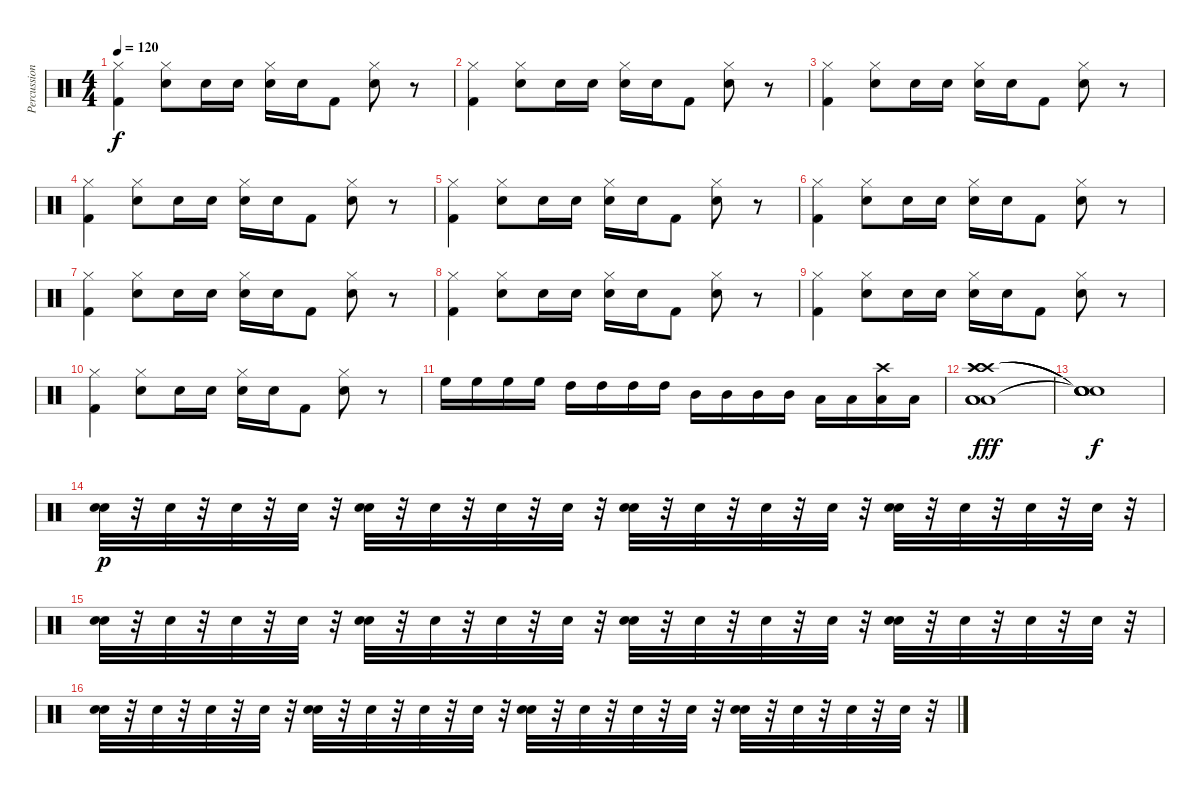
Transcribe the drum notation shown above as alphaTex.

\track ("Percussion - CJ" "Percussion") {instrument percussion}
\staff {score}
\articulation defaults
\ts (4 4)
\tempo 120
\clef neutral
\ks c
("Kick (hit) 2" "Hi-Hat (closed)").4{dy f} ("Snare (hit) 2" "Hi-Hat (closed)").8 "Snare (hit) 2".16 "Snare (hit) 2".16 ("Snare (hit) 2" "Hi-Hat (closed)").16 "Snare (hit) 2".16 "Kick (hit) 2".8 ("Snare (hit) 2" "Hi-Hat (closed)").8 r.8 |
("Kick (hit) 2" "Hi-Hat (closed)").4 ("Snare (hit) 2" "Hi-Hat (closed)").8 "Snare (hit) 2".16 "Snare (hit) 2".16 ("Snare (hit) 2" "Hi-Hat (closed)").16 "Snare (hit) 2".16 "Kick (hit) 2".8 ("Snare (hit) 2" "Hi-Hat (closed)").8 r.8 |
("Kick (hit) 2" "Hi-Hat (closed)").4 ("Snare (hit) 2" "Hi-Hat (closed)").8 "Snare (hit) 2".16 "Snare (hit) 2".16 ("Snare (hit) 2" "Hi-Hat (closed)").16 "Snare (hit) 2".16 "Kick (hit) 2".8 ("Snare (hit) 2" "Hi-Hat (closed)").8 r.8 |
("Kick (hit) 2" "Hi-Hat (closed)").4 ("Snare (hit) 2" "Hi-Hat (closed)").8 "Snare (hit) 2".16 "Snare (hit) 2".16 ("Snare (hit) 2" "Hi-Hat (closed)").16 "Snare (hit) 2".16 "Kick (hit) 2".8 ("Snare (hit) 2" "Hi-Hat (closed)").8 r.8 |
("Kick (hit) 2" "Hi-Hat (closed)").4 ("Snare (hit) 2" "Hi-Hat (closed)").8 "Snare (hit) 2".16 "Snare (hit) 2".16 ("Snare (hit) 2" "Hi-Hat (closed)").16 "Snare (hit) 2".16 "Kick (hit) 2".8 ("Snare (hit) 2" "Hi-Hat (closed)").8 r.8 |
("Kick (hit) 2" "Hi-Hat (closed)").4 ("Snare (hit) 2" "Hi-Hat (closed)").8 "Snare (hit) 2".16 "Snare (hit) 2".16 ("Snare (hit) 2" "Hi-Hat (closed)").16 "Snare (hit) 2".16 "Kick (hit) 2".8 ("Snare (hit) 2" "Hi-Hat (closed)").8 r.8 |
("Kick (hit) 2" "Hi-Hat (closed)").4 ("Snare (hit) 2" "Hi-Hat (closed)").8 "Snare (hit) 2".16 "Snare (hit) 2".16 ("Snare (hit) 2" "Hi-Hat (closed)").16 "Snare (hit) 2".16 "Kick (hit) 2".8 ("Snare (hit) 2" "Hi-Hat (closed)").8 r.8 |
("Kick (hit) 2" "Hi-Hat (closed)").4 ("Snare (hit) 2" "Hi-Hat (closed)").8 "Snare (hit) 2".16 "Snare (hit) 2".16 ("Snare (hit) 2" "Hi-Hat (closed)").16 "Snare (hit) 2".16 "Kick (hit) 2".8 ("Snare (hit) 2" "Hi-Hat (closed)").8 r.8 |
("Kick (hit) 2" "Hi-Hat (closed)").4 ("Snare (hit) 2" "Hi-Hat (closed)").8 "Snare (hit) 2".16 "Snare (hit) 2".16 ("Snare (hit) 2" "Hi-Hat (closed)").16 "Snare (hit) 2".16 "Kick (hit) 2".8 ("Snare (hit) 2" "Hi-Hat (closed)").8 r.8 |
("Kick (hit) 2" "Hi-Hat (closed)").4 ("Snare (hit) 2" "Hi-Hat (closed)").8 "Snare (hit) 2".16 "Snare (hit) 2".16 ("Snare (hit) 2" "Hi-Hat (closed)").16 "Snare (hit) 2".16 "Kick (hit) 2".8 ("Snare (hit) 2" "Hi-Hat (closed)").8 r.8 |
"High Floor Tom (hit)".16 "High Floor Tom (hit)".16 "High Floor Tom (hit)".16 "High Floor Tom (hit)".16 "High Tom (hit)".16 "High Tom (hit)".16 "High Tom (hit)".16 "High Tom (hit)".16 "Mid Tom (hit)".16 "Mid Tom (hit)".16 "Mid Tom (hit)".16 "Mid Tom (hit)".16 "Low Tom (hit)".16 "Low Tom (hit)".16 ("Crash high (hit)" "Low Tom (hit)").16 "Low Tom (hit)".16 |
("Crash high (hit)" "Crash high (hit)" "Crash high (hit)" "Low Tom (hit)" "Low Tom (hit)" "Low Tom (hit)").1{dy fff} |
("Snare (hit)"{t} "Snare (hit)"{t} "Snare (hit)"{t} "Snare (hit)"{t} "Snare (hit)"{t}).1{dy f} |
("Electric Snare (hit)" "Snare (hit) 2").32{dy p} r.32 "Snare (hit) 2".32 r.32 "Snare (hit) 2".32 r.32 "Snare (hit) 2".32 r.32 ("Snare (hit) 2" "Electric Snare (hit)").32 r.32 "Snare (hit) 2".32 r.32 "Snare (hit) 2".32 r.32 "Snare (hit) 2".32 r.32 ("Electric Snare (hit)" "Snare (hit) 2").32 r.32 "Snare (hit) 2".32 r.32 "Snare (hit) 2".32 r.32 "Snare (hit) 2".32 r.32 ("Snare (hit) 2" "Electric Snare (hit)").32 r.32 "Snare (hit) 2".32 r.32 "Snare (hit) 2".32 r.32 "Snare (hit) 2".32 r.32 |
("Electric Snare (hit)" "Snare (hit) 2").32 r.32 "Snare (hit) 2".32 r.32 "Snare (hit) 2".32 r.32 "Snare (hit) 2".32 r.32 ("Snare (hit) 2" "Electric Snare (hit)").32 r.32 "Snare (hit) 2".32 r.32 "Snare (hit) 2".32 r.32 "Snare (hit) 2".32 r.32 ("Electric Snare (hit)" "Snare (hit) 2").32 r.32 "Snare (hit) 2".32 r.32 "Snare (hit) 2".32 r.32 "Snare (hit) 2".32 r.32 ("Snare (hit) 2" "Electric Snare (hit)").32 r.32 "Snare (hit) 2".32 r.32 "Snare (hit) 2".32 r.32 "Snare (hit) 2".32 r.32 |
("Electric Snare (hit)" "Snare (hit) 2").32 r.32 "Snare (hit) 2".32 r.32 "Snare (hit) 2".32 r.32 "Snare (hit) 2".32 r.32 ("Snare (hit) 2" "Electric Snare (hit)").32 r.32 "Snare (hit) 2".32 r.32 "Snare (hit) 2".32 r.32 "Snare (hit) 2".32 r.32 ("Electric Snare (hit)" "Snare (hit) 2").32 r.32 "Snare (hit) 2".32 r.32 "Snare (hit) 2".32 r.32 "Snare (hit) 2".32 r.32 ("Snare (hit) 2" "Electric Snare (hit)").32 r.32 "Snare (hit) 2".32 r.32 "Snare (hit) 2".32 r.32 "Snare (hit) 2".32 r.32
